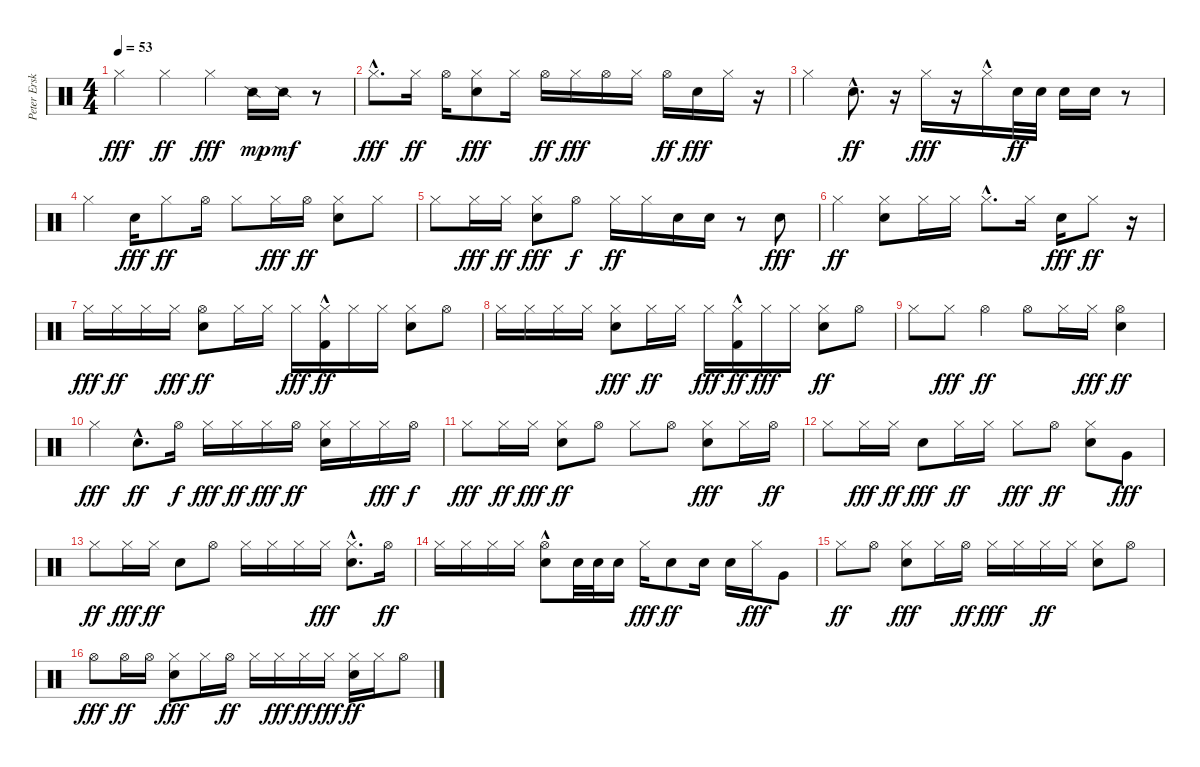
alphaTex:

\track ("Peter Erskine" "Peter Ersk") {instrument percussion}
\staff {score}
\articulation defaults
\ts (4 4)
\tempo 53
\clef neutral
\ks c "Hi-Hat (closed)".4{dy fff} "Hi-Hat (closed)".4{dy ff} "Hi-Hat (closed)".4{dy fff} "Snare (side stick) 2".16{dy mp} "Snare (side stick) 2".16{dy mf}
r.8 |
"Hi-Hat (closed)"{hac}.8{d dy fff} "Hi-Hat (closed)".16{dy ff} "Hi-Hat (open)".16 ("Snare (hit) 2" "Hi-Hat (closed)").8{dy fff} "Hi-Hat (closed)".16 "Hi-Hat (open)".16{dy ff} "Hi-Hat (closed)".16{dy fff} "Hi-Hat (open)".16 "Hi-Hat (closed)".16 "Hi-Hat (open)".16{dy ff} "Snare (hit) 2".16{dy fff} "Hi-Hat (closed)".16 r.16 |
"Hi-Hat (closed)".4 "Snare (hit) 2"{hac}.8{d dy ff} r.16 "Hi-Hat (closed)".16{dy fff} r.16 "Hi-Hat (closed)"{hac}.16 "Snare (hit) 2".32{dy ff} "Snare (hit) 2".32 "Snare (hit) 2".16 "Snare (hit) 2".16 r.8 |
"Hi-Hat (closed)".4 "Snare (hit) 2".16{dy fff} "Hi-Hat (closed)".8{dy ff} "Hi-Hat (open)".16 "Hi-Hat (closed)".8 "Hi-Hat (closed)".16{dy fff} "Hi-Hat (open)".16{dy ff} ("Snare (hit) 2" "Hi-Hat (closed)").8 "Hi-Hat (closed)".8 |
"Hi-Hat (closed)".8 "Hi-Hat (closed)".16{dy fff} "Hi-Hat (closed)".16{dy ff} ("Snare (hit) 2" "Hi-Hat (closed)").8{dy fff} "Hi-Hat (open)".8{dy f} "Hi-Hat (closed)".16{dy ff} "Hi-Hat (closed)".16 "Snare (hit) 2".16 "Snare (hit) 2".16 r.8 "Snare (hit) 2".8{dy fff} |
"Hi-Hat (closed)".4{dy ff} ("Snare (hit) 2" "Hi-Hat (closed)").8 "Hi-Hat (closed)".16 "Hi-Hat (closed)".16 "Hi-Hat (closed)"{hac}.8{d} "Hi-Hat (closed)".16 "Snare (hit) 2".16{dy fff} "Hi-Hat (closed)".8{dy ff} r.16 |
"Hi-Hat (closed)".16{dy fff} "Hi-Hat (closed)".16{dy ff} "Hi-Hat (closed)".16 "Hi-Hat (closed)".16{dy fff} ("Snare (hit) 2" "Hi-Hat (open)").8{dy ff} "Hi-Hat (closed)".16 "Hi-Hat (closed)".16 "Hi-Hat (closed)".16{dy fff} ("Kick (hit) 2"{hac} "Hi-Hat (closed)").16{dy ff} "Hi-Hat (closed)".16 "Hi-Hat (closed)".16 ("Snare (hit) 2" "Hi-Hat (closed)").8 "Hi-Hat (open)".8 |
"Hi-Hat (closed)".16 "Hi-Hat (closed)".16 "Hi-Hat (closed)".16 "Hi-Hat (closed)".16 ("Snare (hit) 2" "Hi-Hat (closed)").8{dy fff} "Hi-Hat (closed)".16{dy ff} "Hi-Hat (closed)".16 "Hi-Hat (closed)".16{dy fff} ("Kick (hit) 2"{hac} "Hi-Hat (closed)").16{dy ff} "Hi-Hat (closed)".16{dy fff} "Hi-Hat (closed)".16 ("Snare (hit) 2" "Hi-Hat (closed)").8{dy ff} "Hi-Hat (open)".8 |
"Hi-Hat (closed)".8 "Hi-Hat (closed)".8{dy fff} "Hi-Hat (open)".4{dy ff} "Hi-Hat (open)".8 "Hi-Hat (closed)".16 "Hi-Hat (closed)".16{dy fff} ("Snare (hit) 2" "Hi-Hat (open)").4{dy ff} |
"Hi-Hat (closed)".4{dy fff} "Snare (hit) 2"{hac}.8{d dy ff} "Hi-Hat (open)".16{dy f} "Hi-Hat (closed)".16{dy fff} "Hi-Hat (closed)".16{dy ff} "Hi-Hat (closed)".16{dy fff} "Hi-Hat (open)".16{dy ff} ("Snare (hit) 2" "Hi-Hat (closed)").16 "Hi-Hat (closed)".16 "Hi-Hat (closed)".16{dy fff} "Hi-Hat (open)".16{dy f} |
"Hi-Hat (closed)".8{dy fff} "Hi-Hat (closed)".16{dy ff} "Hi-Hat (closed)".16{dy fff} ("Snare (hit) 2" "Hi-Hat (closed)").8{dy ff} "Hi-Hat (open)".8 "Hi-Hat (closed)".8 "Hi-Hat (open)".8 ("Snare (hit) 2" "Hi-Hat (closed)").8{dy fff} "Hi-Hat (closed)".16 "Hi-Hat (open)".16{dy ff} |
"Hi-Hat (closed)".8 "Hi-Hat (closed)".16{dy fff} "Hi-Hat (closed)".16{dy ff} "Snare (hit) 2".8{dy fff} "Hi-Hat (closed)".16{dy ff} "Hi-Hat (closed)".16 "Hi-Hat (closed)".8{dy fff} "Hi-Hat (open)".8{dy ff} ("Snare (hit) 2" "Hi-Hat (closed)").8 "Very Low Tom (hit)".8{dy fff balance 16} |
"Hi-Hat (closed)".8{dy ff balance 8} "Hi-Hat (closed)".16{dy fff} "Hi-Hat (closed)".16{dy ff} "Snare (hit) 2".8 "Hi-Hat (open)".8 "Hi-Hat (closed)".16 "Hi-Hat (closed)".16 "Hi-Hat (closed)".16 "Hi-Hat (closed)".16{dy fff} ("Snare (hit) 2"{hac} "Hi-Hat (closed)"{hac}).8{d} "Hi-Hat (open)".16{dy ff} |
"Hi-Hat (closed)".16 "Hi-Hat (closed)".16 "Hi-Hat (closed)".16 "Hi-Hat (closed)".16 ("Snare (hit) 2" "Hi-Hat (open)"{hac}).8 "Snare (hit) 2".32 "Snare (hit) 2".32 "Snare (hit) 2".16 "Hi-Hat (closed)".16{dy fff} "Snare (hit) 2".8{dy ff} "Snare (hit) 2".16 "Snare (hit) 2".16 "Hi-Hat (closed)".16{dy fff} "Very Low Tom (hit)".8{balance 16} |
"Hi-Hat (closed)".8{dy ff balance 8} "Hi-Hat (open)".8 ("Snare (hit) 2" "Hi-Hat (closed)").8{dy fff} "Hi-Hat (closed)".16 "Hi-Hat (open)".16{dy ff} "Hi-Hat (closed)".16{dy fff} "Hi-Hat (closed)".16 "Hi-Hat (closed)".16{dy ff} "Hi-Hat (closed)".16 ("Snare (hit) 2" "Hi-Hat (closed)").8 "Hi-Hat (open)".8 |
"Hi-Hat (open)".8{dy fff} "Hi-Hat (open)".16{dy ff} "Hi-Hat (open)".16 ("Snare (hit) 2" "Hi-Hat (closed)").8{dy fff} "Hi-Hat (closed)".16 "Hi-Hat (open)".16{dy ff} "Hi-Hat (closed)".16 "Hi-Hat (closed)".16{dy fff} "Hi-Hat (closed)".16{dy ff} "Hi-Hat (closed)".16{dy fff} ("Snare (hit) 2" "Hi-Hat (closed)").16{dy ff} "Hi-Hat (closed)".16 "Hi-Hat (open)".8
